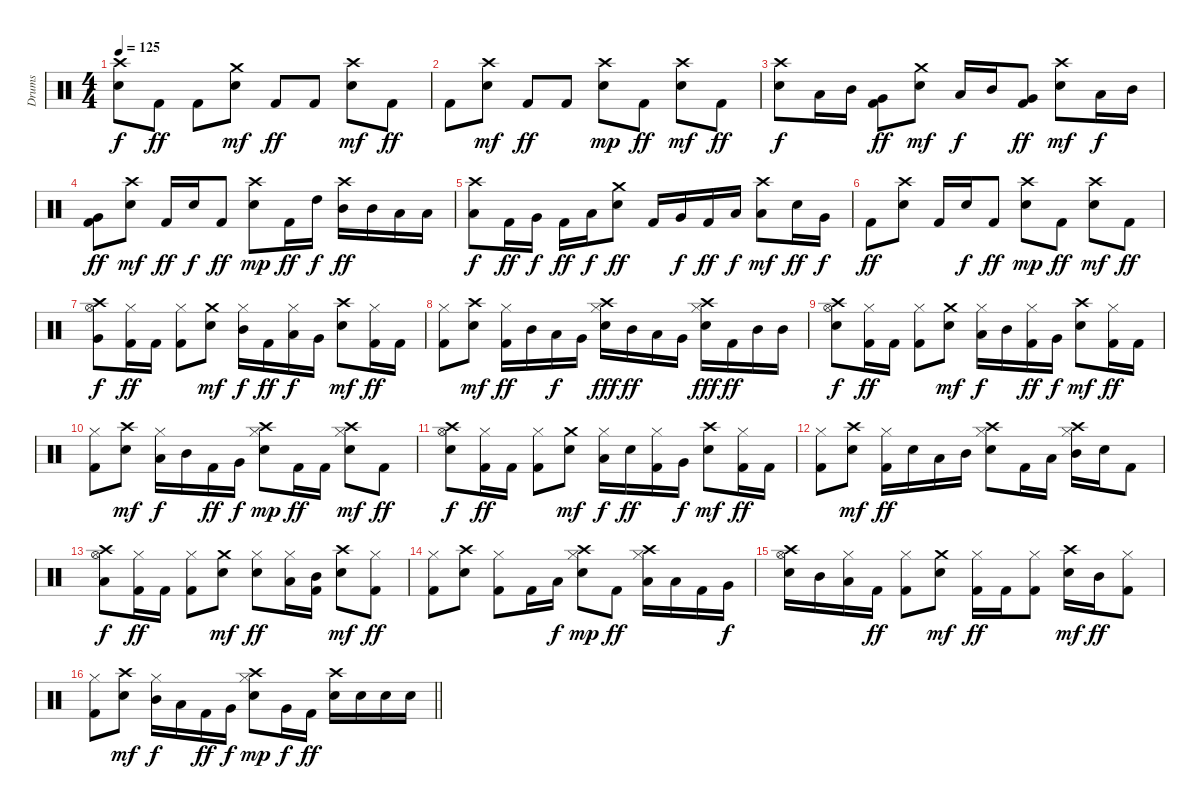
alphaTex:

\track ("Drums" "Drums") {instrument percussion}
\staff {score}
\articulation defaults
\ts (4 4)
\tempo 125
\clef neutral
\ks c
("Crash high (hit)" "Snare (hit) 2").8{dy f} "Kick (hit) 2".8{dy ff} "Kick (hit) 2".8 ("Crash medium (hit)" "Snare (hit) 2").8{dy mf} "Kick (hit) 2".8{dy ff} "Kick (hit) 2".8 ("Crash high (hit)" "Snare (hit) 2").8{dy mf} "Kick (hit) 2".8{dy ff} |
"Kick (hit) 2".8 ("Crash high (hit)" "Snare (hit) 2").8{dy mf} "Kick (hit) 2".8{dy ff} "Kick (hit) 2".8 ("Crash high (hit)" "Snare (hit) 2").8{dy mp} "Kick (hit) 2".8{dy ff} ("Crash high (hit)" "Snare (hit) 2").8{dy mf} "Kick (hit) 2".8{dy ff} |
("Crash high (hit)" "Snare (hit) 2").8{dy f} "Low Tom (hit)".16 "Mid Tom (hit)".16 ("Very Low Tom (hit)" "Kick (hit) 2").8{dy ff} ("Crash medium (hit)" "Snare (hit) 2").8{dy mf} "Low Tom (hit)".16{dy f} "Mid Tom (hit)".16 ("Very Low Tom (hit)" "Kick (hit) 2").8{dy ff} ("Crash high (hit)" "Snare (hit) 2").8{dy mf} "Low Tom (hit)".16{dy f} "Mid Tom (hit)".16 |
("Very Low Tom (hit)" "Kick (hit) 2").8{dy ff} ("Crash high (hit)" "Snare (hit) 2").8{dy mf} "Kick (hit) 2".16{dy ff} "Snare (hit) 2".16{dy f} "Kick (hit) 2".8{dy ff} ("Crash high (hit)" "Snare (hit) 2").8{dy mp} "Kick (hit) 2".16{dy ff} "High Tom (hit)".16{dy f} ("Crash high (hit)" "Mid Tom (hit)").16{dy ff} "Mid Tom (hit)".16 "Low Tom (hit)".16 "Low Tom (hit)".16 |
("Crash high (hit)" "Low Tom (hit)").8{dy f} "Kick (hit) 2".16{dy ff} "Very Low Tom (hit)".16{dy f} "Kick (hit) 2".16{dy ff} "Low Floor Tom (hit)".16{dy f} ("Crash medium (hit)" "Snare (hit) 2").8{dy ff} "Kick (hit) 2".16 "Very Low Tom (hit)".16{dy f} "Kick (hit) 2".16{dy ff} "Low Floor Tom (hit)".16{dy f} ("Crash high (hit)" "Low Tom (hit)").8{dy mf} "Snare (hit) 2".16{dy ff} "Very Low Tom (hit)".16{dy f} |
"Kick (hit) 2".8{dy ff} ("Crash high (hit)" "Snare (hit) 2").8 "Kick (hit) 2".16 "Snare (hit) 2".16{dy f} "Kick (hit) 2".8{dy ff} ("Crash high (hit)" "Snare (hit) 2").8{dy mp} "Kick (hit) 2".8{dy ff} ("Crash high (hit)" "Snare (hit) 2").8{dy mf} "Kick (hit) 2".8{dy ff} |
("Crash high (hit)" "Hi-Hat (open)" "Very Low Tom (hit)").8{dy f} ("Hi-Hat (closed)" "Kick (hit) 2").16{dy ff} "Kick (hit) 2".16 ("Hi-Hat (closed)" "Kick (hit) 2").8 ("Crash medium (hit)" "Snare (hit) 2").8{dy mf} ("Hi-Hat (closed)" "Mid Tom (hit)").16{dy f} "Kick (hit) 2".16{dy ff} ("Hi-Hat (closed)" "Low Tom (hit)").16{dy f} "Very Low Tom (hit)".16 ("Crash high (hit)" "Snare (hit) 2").8{dy mf} ("Hi-Hat (closed)" "Kick (hit) 2").16{dy ff} "Kick (hit) 2".16 |
("Hi-Hat (closed)" "Kick (hit) 2").8 ("Crash high (hit)" "Snare (hit) 2").8{dy mf} ("Hi-Hat (closed)" "Kick (hit) 2").16{dy ff} "Mid Tom (hit)".16 "Low Tom (hit)".16{dy f} "Very Low Tom (hit)".16 ("Crash high (hit)" "Hi-Hat (closed)" "Snare (hit) 2").16{dy fff} "Mid Tom (hit)".16{dy ff} "Low Tom (hit)".16 "Very Low Tom (hit)".16 ("Crash high (hit)" "Hi-Hat (closed)" "Snare (hit) 2").16{dy fff} "Kick (hit) 2".16{dy ff} "Mid Tom (hit)".16 "Mid Tom (hit)".16 |
("Crash high (hit)" "Hi-Hat (open)" "Snare (hit) 2").8{dy f} ("Hi-Hat (closed)" "Kick (hit) 2").16{dy ff} "Kick (hit) 2".16 ("Hi-Hat (closed)" "Kick (hit) 2").8 ("Crash medium (hit)" "Snare (hit) 2").8{dy mf} ("Hi-Hat (closed)" "Low Tom (hit)").16{dy f} "Mid Tom (hit)".16 ("Hi-Hat (closed)" "Kick (hit) 2").16{dy ff} "Very Low Tom (hit)".16{dy f} ("Crash high (hit)" "Snare (hit) 2").8{dy mf} ("Hi-Hat (closed)" "Kick (hit) 2").16{dy ff} "Kick (hit) 2".16 |
("Hi-Hat (closed)" "Kick (hit) 2").8 ("Crash high (hit)" "Snare (hit) 2").8{dy mf} ("Hi-Hat (closed)" "Low Tom (hit)").16{dy f} "Mid Tom (hit)".16 "Kick (hit) 2".16{dy ff} "Very Low Tom (hit)".16{dy f} ("Crash high (hit)" "Hi-Hat (closed)" "Snare (hit) 2").8{dy mp} "Kick (hit) 2".16{dy ff} "Kick (hit) 2".16 ("Crash high (hit)" "Hi-Hat (closed)" "Snare (hit) 2").8{dy mf} "Kick (hit) 2".8{dy ff} |
("Crash high (hit)" "Hi-Hat (open)" "Snare (hit) 2").8{dy f} ("Hi-Hat (closed)" "Kick (hit) 2").16{dy ff} "Kick (hit) 2".16 ("Hi-Hat (closed)" "Kick (hit) 2").8 ("Crash medium (hit)" "Snare (hit) 2").8{dy mf} ("Hi-Hat (closed)" "Low Tom (hit)").16{dy f} "Snare (hit) 2".16{dy ff} ("Hi-Hat (closed)" "Kick (hit) 2").16 "Very Low Tom (hit)".16{dy f} ("Crash high (hit)" "Snare (hit) 2").8{dy mf} ("Hi-Hat (closed)" "Kick (hit) 2").16{dy ff} "Kick (hit) 2".16 |
("Hi-Hat (closed)" "Kick (hit) 2").8 ("Crash high (hit)" "Snare (hit) 2").8{dy mf} ("Hi-Hat (closed)" "Kick (hit) 2").16{dy ff} "Snare (hit) 2".16 "Low Tom (hit)".16 "Mid Tom (hit)".16 ("Crash high (hit)" "Hi-Hat (closed)" "Snare (hit) 2").8 "Kick (hit) 2".16 "Low Tom (hit)".16 ("Crash high (hit)" "Hi-Hat (closed)" "Mid Tom (hit)").16 "Snare (hit) 2".16 "Kick (hit) 2".8 |
("Crash high (hit)" "Hi-Hat (open)" "Low Tom (hit)").8{dy f} ("Hi-Hat (closed)" "Kick (hit) 2").16{dy ff} "Kick (hit) 2".16 ("Hi-Hat (closed)" "Kick (hit) 2").8 ("Crash medium (hit)" "Snare (hit) 2").8{dy mf} ("Hi-Hat (closed)" "Snare (hit) 2").8{dy ff} ("Hi-Hat (closed)" "Low Tom (hit)").16 ("Mid Tom (hit)" "Kick (hit) 2").16 ("Crash high (hit)" "Snare (hit) 2").8{dy mf} ("Hi-Hat (closed)" "Kick (hit) 2").8{dy ff} |
("Hi-Hat (closed)" "Kick (hit) 2").8 ("Crash high (hit)" "Snare (hit) 2").8 ("Hi-Hat (closed)" "Kick (hit) 2").8 "Kick (hit) 2".16 "Low Tom (hit)".16{dy f} ("Crash high (hit)" "Hi-Hat (closed)" "Snare (hit) 2").8{dy mp} "Kick (hit) 2".8{dy ff} ("Crash high (hit)" "Hi-Hat (closed)" "Low Tom (hit)").16 "Low Tom (hit)".16 "Kick (hit) 2".16 "Very Low Tom (hit)".16{dy f} |
("Crash high (hit)" "Hi-Hat (open)" "Snare (hit) 2").16 "Mid Tom (hit)".16 ("Hi-Hat (closed)" "Low Tom (hit)").16 "Kick (hit) 2".16{dy ff} ("Hi-Hat (closed)" "Kick (hit) 2").8 ("Crash medium (hit)" "Snare (hit) 2").8{dy mf} ("Hi-Hat (closed)" "Kick (hit) 2").16{dy ff} "Kick (hit) 2".16 ("Hi-Hat (closed)" "Kick (hit) 2").8 ("Crash high (hit)" "Snare (hit) 2").16{dy mf} "Mid Tom (hit)".16{dy ff} ("Hi-Hat (closed)" "Kick (hit) 2").8 |
\barLineRight lightlight
("Hi-Hat (closed)" "Kick (hit) 2").8 ("Crash high (hit)" "Snare (hit) 2").8{dy mf} ("Hi-Hat (closed)" "Mid Tom (hit)").16{dy f} "Low Tom (hit)".16 "Kick (hit) 2".16{dy ff} "Very Low Tom (hit)".16{dy f} ("Crash high (hit)" "Hi-Hat (closed)" "Snare (hit) 2").8{dy mp} "Very Low Tom (hit)".16{dy f} "Kick (hit) 2".16{dy ff} ("Crash high (hit)" "Snare (hit) 2").16 "Snare (hit) 2".16 "Snare (hit) 2".16 "Snare (hit) 2".16
